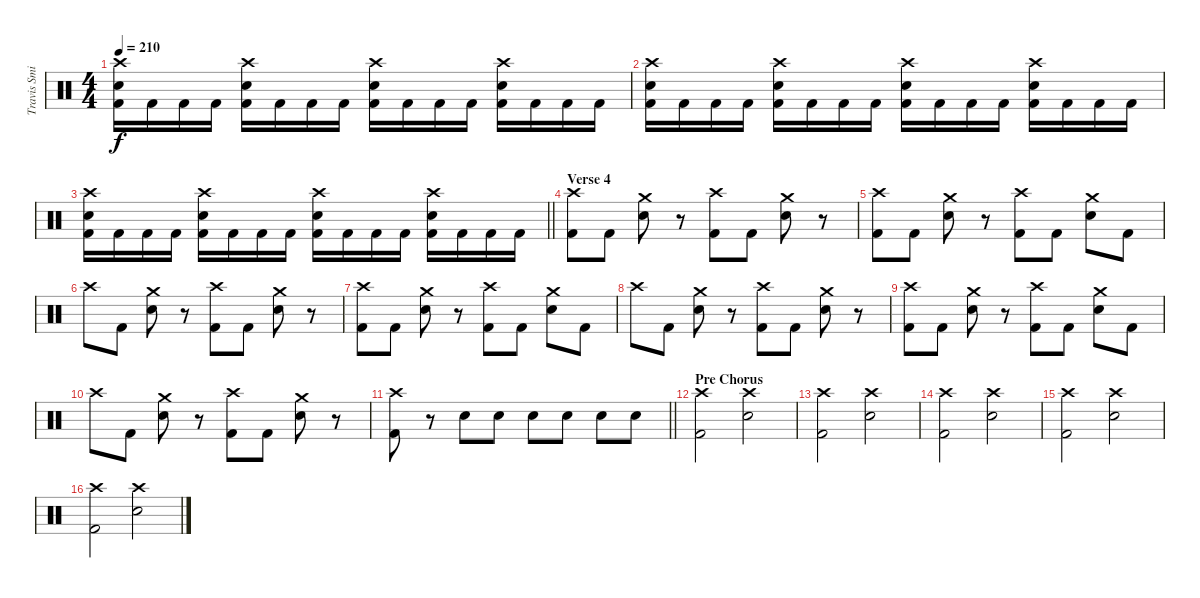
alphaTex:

\track ("Travis Smith" "Travis Smi") {instrument percussion}
\staff {score}
\articulation defaults
\ts (4 4)
\tempo 210
\clef neutral
\ks c
("Crash high (hit)" "Electric Snare (hit)" "Kick (hit) 2").16{dy f} "Kick (hit) 2".16 "Kick (hit) 2".16 "Kick (hit) 2".16 ("Crash high (hit)" "Electric Snare (hit)" "Kick (hit) 2").16 "Kick (hit) 2".16 "Kick (hit) 2".16 "Kick (hit) 2".16 ("Crash high (hit)" "Electric Snare (hit)" "Kick (hit) 2").16 "Kick (hit) 2".16 "Kick (hit) 2".16 "Kick (hit) 2".16 ("Crash high (hit)" "Electric Snare (hit)" "Kick (hit) 2").16 "Kick (hit) 2".16 "Kick (hit) 2".16 "Kick (hit) 2".16 |
("Crash high (hit)" "Electric Snare (hit)" "Kick (hit) 2").16 "Kick (hit) 2".16 "Kick (hit) 2".16 "Kick (hit) 2".16 ("Crash high (hit)" "Electric Snare (hit)" "Kick (hit) 2").16 "Kick (hit) 2".16 "Kick (hit) 2".16 "Kick (hit) 2".16 ("Crash high (hit)" "Electric Snare (hit)" "Kick (hit) 2").16 "Kick (hit) 2".16 "Kick (hit) 2".16 "Kick (hit) 2".16 ("Crash high (hit)" "Electric Snare (hit)" "Kick (hit) 2").16 "Kick (hit) 2".16 "Kick (hit) 2".16 "Kick (hit) 2".16 |
\barLineRight lightlight
("Crash high (hit)" "Electric Snare (hit)" "Kick (hit) 2").16 "Kick (hit) 2".16 "Kick (hit) 2".16 "Kick (hit) 2".16 ("Crash high (hit)" "Electric Snare (hit)" "Kick (hit) 2").16 "Kick (hit) 2".16 "Kick (hit) 2".16 "Kick (hit) 2".16 ("Crash high (hit)" "Electric Snare (hit)" "Kick (hit) 2").16 "Kick (hit) 2".16 "Kick (hit) 2".16 "Kick (hit) 2".16 ("Crash high (hit)" "Electric Snare (hit)" "Kick (hit) 2").16 "Kick (hit) 2".16 "Kick (hit) 2".16 "Kick (hit) 2".16 |
\section ("" "Verse 4")
("Crash high (hit)" "Kick (hit) 2").8 "Kick (hit) 2".8 ("Crash medium (hit)" "Electric Snare (hit)").8 r.8 ("Crash high (hit)" "Kick (hit) 2").8 "Kick (hit) 2".8 ("Crash medium (hit)" "Electric Snare (hit)").8 r.8 |
("Crash high (hit)" "Kick (hit) 2").8 "Kick (hit) 2".8 ("Crash medium (hit)" "Electric Snare (hit)").8 r.8 ("Crash high (hit)" "Kick (hit) 2").8 "Kick (hit) 2".8 ("Crash medium (hit)" "Electric Snare (hit)").8 "Kick (hit) 2".8 |
"Crash high (hit)".8 "Kick (hit) 2".8 ("Crash medium (hit)" "Electric Snare (hit)").8 r.8 ("Crash high (hit)" "Kick (hit) 2").8 "Kick (hit) 2".8 ("Crash medium (hit)" "Electric Snare (hit)").8 r.8 |
("Crash high (hit)" "Kick (hit) 2").8 "Kick (hit) 2".8 ("Crash medium (hit)" "Electric Snare (hit)").8 r.8 ("Crash high (hit)" "Kick (hit) 2").8 "Kick (hit) 2".8 ("Crash medium (hit)" "Electric Snare (hit)").8 "Kick (hit) 2".8 |
"Crash high (hit)".8 "Kick (hit) 2".8 ("Crash medium (hit)" "Electric Snare (hit)").8 r.8 ("Crash high (hit)" "Kick (hit) 2").8 "Kick (hit) 2".8 ("Crash medium (hit)" "Electric Snare (hit)").8 r.8 |
("Crash high (hit)" "Kick (hit) 2").8 "Kick (hit) 2".8 ("Crash medium (hit)" "Electric Snare (hit)").8 r.8 ("Crash high (hit)" "Kick (hit) 2").8 "Kick (hit) 2".8 ("Crash medium (hit)" "Electric Snare (hit)").8 "Kick (hit) 2".8 |
"Crash high (hit)".8 "Kick (hit) 2".8 ("Crash medium (hit)" "Electric Snare (hit)").8 r.8 ("Crash high (hit)" "Kick (hit) 2").8 "Kick (hit) 2".8 ("Crash medium (hit)" "Electric Snare (hit)").8 r.8 |
\barLineRight lightlight
("Crash high (hit)" "Kick (hit) 2").8 r.8 "Electric Snare (hit)".8 "Electric Snare (hit)".8 "Electric Snare (hit)".8 "Electric Snare (hit)".8 "Electric Snare (hit)".8 "Electric Snare (hit)".8 |
\section ("" "Pre Chorus")
("Crash high (hit)" "Kick (hit) 2").2 ("Crash high (hit)" "Electric Snare (hit)").2 |
("Crash high (hit)" "Kick (hit) 2").2 ("Crash high (hit)" "Electric Snare (hit)").2 |
("Crash high (hit)" "Kick (hit) 2").2 ("Crash high (hit)" "Electric Snare (hit)").2 |
("Crash high (hit)" "Kick (hit) 2").2 ("Crash high (hit)" "Electric Snare (hit)").2 |
("Crash high (hit)" "Kick (hit) 2").2 ("Crash high (hit)" "Electric Snare (hit)").2
